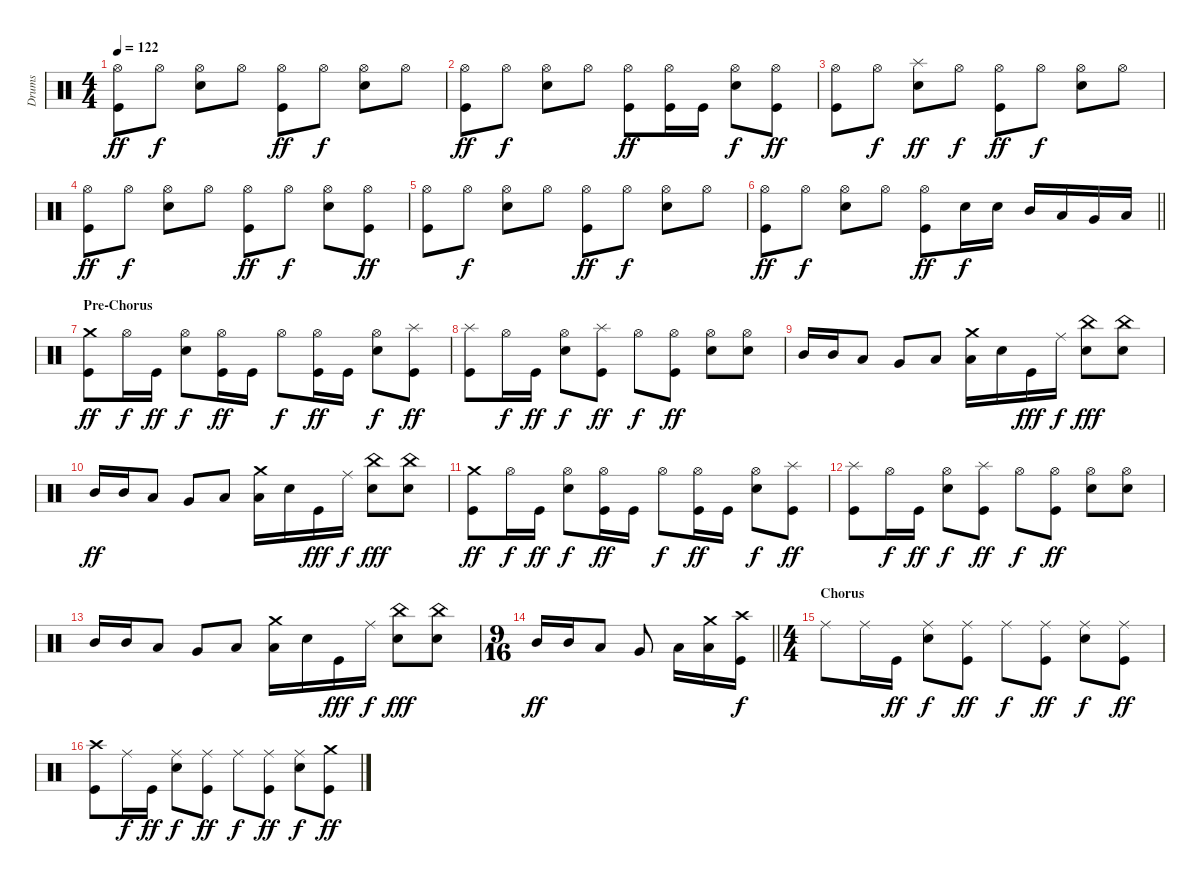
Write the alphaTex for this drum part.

\track ("Drums" "Drums") {instrument percussion}
\staff {score}
\articulation defaults
\ts (4 4)
\tempo 122
\clef neutral
\ks c
("Hi-Hat (open)" "Kick (hit)").8{dy ff} "Hi-Hat (open)".8{dy f} ("Hi-Hat (open)" "Snare (hit) 2").8 "Hi-Hat (open)".8 ("Hi-Hat (open)" "Kick (hit)").8{dy ff} "Hi-Hat (open)".8{dy f} ("Hi-Hat (open)" "Snare (hit) 2").8 "Hi-Hat (open)".8 |
("Hi-Hat (open)" "Kick (hit)").8{dy ff} "Hi-Hat (open)".8{dy f} ("Hi-Hat (open)" "Snare (hit) 2").8 "Hi-Hat (open)".8 ("Hi-Hat (open)" "Kick (hit)").8{dy ff} ("Hi-Hat (open)" "Kick (hit)").16 "Kick (hit)".16 ("Hi-Hat (open)" "Snare (hit) 2").8{dy f} ("Hi-Hat (open)" "Kick (hit)").8{dy ff} |
("Hi-Hat (open)" "Kick (hit)").8 "Hi-Hat (open)".8{dy f} ("Splash (hit)" "Snare (hit) 2").8{dy ff} "Hi-Hat (open)".8{dy f} ("Hi-Hat (open)" "Kick (hit)").8{dy ff} "Hi-Hat (open)".8{dy f} ("Hi-Hat (open)" "Snare (hit) 2").8 "Hi-Hat (open)".8 |
("Hi-Hat (open)" "Kick (hit)").8{dy ff} "Hi-Hat (open)".8{dy f} ("Hi-Hat (open)" "Snare (hit) 2").8 "Hi-Hat (open)".8 ("Hi-Hat (open)" "Kick (hit)").8{dy ff} "Hi-Hat (open)".8{dy f} ("Hi-Hat (open)" "Snare (hit) 2").8 ("Hi-Hat (open)" "Kick (hit)").8{dy ff} |
("Hi-Hat (open)" "Kick (hit)").8 "Hi-Hat (open)".8{dy f} ("Hi-Hat (open)" "Snare (hit) 2").8 "Hi-Hat (open)".8 ("Hi-Hat (open)" "Kick (hit)").8{dy ff} "Hi-Hat (open)".8{dy f} ("Hi-Hat (open)" "Snare (hit) 2").8 "Hi-Hat (open)".8 |
\barLineRight lightlight
("Hi-Hat (open)" "Kick (hit)").8{dy ff} "Hi-Hat (open)".8{dy f} ("Hi-Hat (open)" "Snare (hit) 2").8 "Hi-Hat (open)".8 ("Hi-Hat (open)" "Kick (hit)").8{dy ff} "Snare (hit) 2".16{dy f} "Snare (hit) 2".16 "Mid Tom (hit)".16 "Low Tom (hit)".16 "Very Low Tom (hit)".16 "Low Floor Tom (hit)".16 |
\section ("" "Pre-Chorus")
("Crash medium (hit)" "Kick (hit)").8{dy ff} "Hi-Hat (open)".16{dy f} "Kick (hit)".16{dy ff} ("Hi-Hat (open)" "Snare (hit) 2").8{dy f} ("Hi-Hat (open)" "Kick (hit)").16{dy ff} "Kick (hit)".16 "Hi-Hat (open)".8{dy f} ("Hi-Hat (open)" "Kick (hit)").16{dy ff} "Kick (hit)".16 ("Hi-Hat (open)" "Snare (hit) 2").8{dy f} ("Splash (hit)" "Kick (hit)").8{dy ff} |
("Splash (hit)" "Kick (hit)").8 "Hi-Hat (open)".16{dy f} "Kick (hit)".16{dy ff} ("Hi-Hat (open)" "Snare (hit) 2").8{dy f} ("Splash (hit)" "Kick (hit)").8{dy ff} "Hi-Hat (open)".8{dy f} ("Hi-Hat (open)" "Kick (hit)").8{dy ff} ("Hi-Hat (open)" "Snare (hit) 2").8 ("Hi-Hat (open)" "Snare (hit) 2").8 |
"Mid Tom (hit)".16 "Mid Tom (hit)".16 "Low Tom (hit)".8 "Very Low Tom (hit)".8 "Low Floor Tom (hit)".8 ("Crash medium (hit)" "Low Floor Tom (hit)").16 "Snare (hit) 2".16 "Kick (hit)".16{dy fff} "Ride (middle)".16{dy f} ("China (hit)" "Snare (hit) 2").8{dy fff} ("China (hit)" "Snare (hit) 2").8 |
"Mid Tom (hit)".16{dy ff} "Mid Tom (hit)".16 "Low Tom (hit)".8 "Very Low Tom (hit)".8 "Low Floor Tom (hit)".8 ("Crash medium (hit)" "Low Floor Tom (hit)").16 "Snare (hit) 2".16 "Kick (hit)".16{dy fff} "Ride (middle)".16{dy f} ("China (hit)" "Snare (hit) 2").8{dy fff} ("China (hit)" "Snare (hit) 2").8 |
("Crash medium (hit)" "Kick (hit)").8{dy ff} "Hi-Hat (open)".16{dy f} "Kick (hit)".16{dy ff} ("Hi-Hat (open)" "Snare (hit) 2").8{dy f} ("Hi-Hat (open)" "Kick (hit)").16{dy ff} "Kick (hit)".16 "Hi-Hat (open)".8{dy f} ("Hi-Hat (open)" "Kick (hit)").16{dy ff} "Kick (hit)".16 ("Hi-Hat (open)" "Snare (hit) 2").8{dy f} ("Splash (hit)" "Kick (hit)").8{dy ff} |
("Splash (hit)" "Kick (hit)").8 "Hi-Hat (open)".16{dy f} "Kick (hit)".16{dy ff} ("Hi-Hat (open)" "Snare (hit) 2").8{dy f} ("Splash (hit)" "Kick (hit)").8{dy ff} "Hi-Hat (open)".8{dy f} ("Hi-Hat (open)" "Kick (hit)").8{dy ff} ("Hi-Hat (open)" "Snare (hit) 2").8 ("Hi-Hat (open)" "Snare (hit) 2").8 |
"Mid Tom (hit)".16 "Mid Tom (hit)".16 "Low Tom (hit)".8 "Very Low Tom (hit)".8 "Low Floor Tom (hit)".8 ("Crash medium (hit)" "Low Floor Tom (hit)").16 "Snare (hit) 2".16 "Kick (hit)".16{dy fff} "Ride (middle)".16{dy f} ("China (hit)" "Snare (hit) 2").8{dy fff} ("China (hit)" "Snare (hit) 2").8 |
\ts (9 16)
\barLineRight lightlight "Mid Tom (hit)".16{dy ff} "Mid Tom (hit)".16 "Low Tom (hit)".8 "Very Low Tom (hit)".8 "Low Floor Tom (hit)".16
("Crash medium (hit)" "Low Floor Tom (hit)").16 ("Crash high (hit)" "Kick (hit)").16{dy f} |
\ts (4 4)
\section ("" "Chorus")
"Ride (middle)".8 "Ride (middle)".16 "Kick (hit)".16{dy ff} ("Ride (middle)" "Snare (hit) 2").8{dy f} ("Ride (middle)" "Kick (hit)").8{dy ff} "Ride (middle)".8{dy f} ("Ride (middle)" "Kick (hit)").8{dy ff} ("Ride (middle)" "Snare (hit) 2").8{dy f} ("Ride (middle)" "Kick (hit)").8{dy ff} |
("Crash high (hit)" "Kick (hit)").8 "Ride (middle)".16{dy f} "Kick (hit)".16{dy ff} ("Ride (middle)" "Snare (hit) 2").8{dy f} ("Ride (middle)" "Kick (hit)").8{dy ff} "Ride (middle)".8{dy f} ("Ride (middle)" "Kick (hit)").8{dy ff} ("Ride (middle)" "Snare (hit) 2").8{dy f} ("Crash medium (hit)" "Kick (hit)").8{dy ff}
